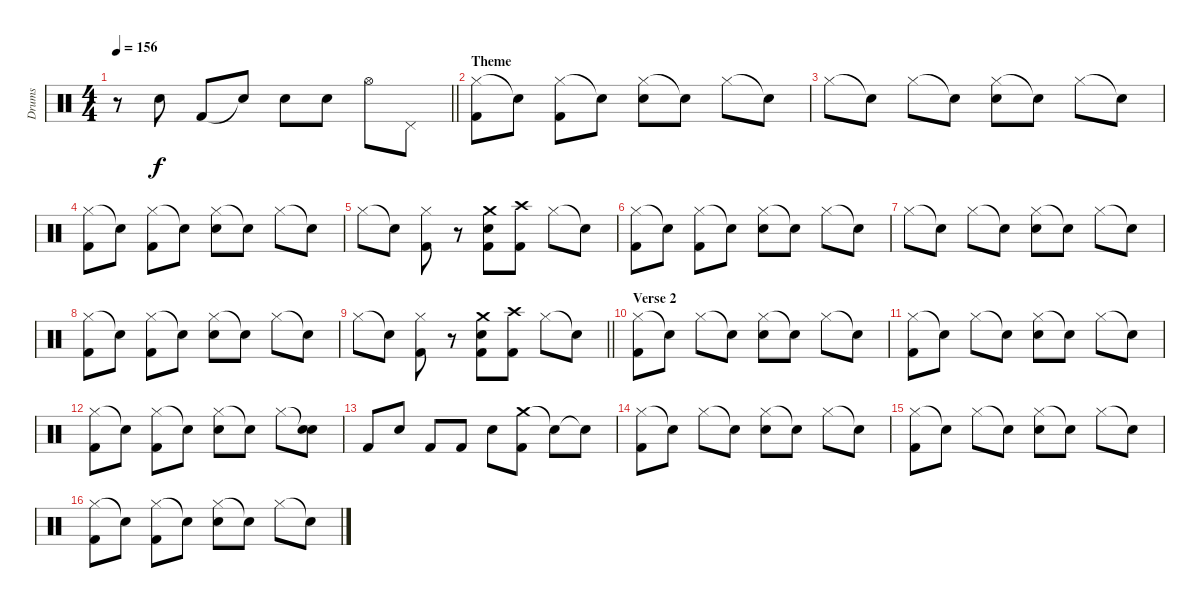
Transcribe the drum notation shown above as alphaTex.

\track ("Drums" "Drums") {instrument percussion}
\staff {score}
\articulation defaults
\ts (4 4)
\tempo 156
\clef neutral
\barLineRight lightlight
\ks c
r.8{dy f} "Snare (hit) 2".8 "Kick (hit) 2".8 "Snare (hit)"{t}.8 "Snare (hit) 2".8 "Snare (hit) 2".8 "Hi-Hat (open)".8 "Pedal Hi-Hat (hit)".8 |
\section ("" "Theme")
("Hi-Hat (closed)" "Kick (hit) 2").8 "Snare (hit)"{t}.8 ("Hi-Hat (closed)" "Kick (hit) 2").8 "Snare (hit)"{t}.8 ("Hi-Hat (closed)" "Snare (hit) 2").8 "Snare (hit)"{t}.8 "Hi-Hat (closed)".8 "Snare (hit)"{t}.8 |
"Hi-Hat (closed)".8 "Snare (hit)"{t}.8 "Hi-Hat (closed)".8 "Snare (hit)"{t}.8 ("Hi-Hat (closed)" "Snare (hit) 2").8 "Snare (hit)"{t}.8 "Hi-Hat (closed)".8 "Snare (hit)"{t}.8 |
("Hi-Hat (closed)" "Kick (hit) 2").8 "Snare (hit)"{t}.8 ("Hi-Hat (closed)" "Kick (hit) 2").8 "Snare (hit)"{t}.8 ("Hi-Hat (closed)" "Snare (hit) 2").8 "Snare (hit)"{t}.8 "Hi-Hat (closed)".8 "Snare (hit)"{t}.8 |
"Hi-Hat (closed)".8 "Snare (hit)"{t}.8 ("Hi-Hat (closed)" "Kick (hit) 2").8 r.8 ("Crash medium (hit)" "Snare (hit) 2" "Kick (hit) 2").8 ("Crash high (hit)" "Kick (hit) 2").8 "Hi-Hat (closed)".8 "Snare (hit)"{t}.8 |
("Hi-Hat (closed)" "Kick (hit) 2").8 "Snare (hit)"{t}.8 ("Hi-Hat (closed)" "Kick (hit) 2").8 "Snare (hit)"{t}.8 ("Hi-Hat (closed)" "Snare (hit) 2").8 "Snare (hit)"{t}.8 "Hi-Hat (closed)".8 "Snare (hit)"{t}.8 |
"Hi-Hat (closed)".8 "Snare (hit)"{t}.8 "Hi-Hat (closed)".8 "Snare (hit)"{t}.8 ("Hi-Hat (closed)" "Snare (hit) 2").8 "Snare (hit)"{t}.8 "Hi-Hat (closed)".8 "Snare (hit)"{t}.8 |
("Hi-Hat (closed)" "Kick (hit) 2").8 "Snare (hit)"{t}.8 ("Hi-Hat (closed)" "Kick (hit) 2").8 "Snare (hit)"{t}.8 ("Hi-Hat (closed)" "Snare (hit) 2").8 "Snare (hit)"{t}.8 "Hi-Hat (closed)".8 "Snare (hit)"{t}.8 |
\barLineRight lightlight "Hi-Hat (closed)".8 "Snare (hit)"{t}.8
("Hi-Hat (closed)" "Kick (hit) 2").8 r.8 ("Crash medium (hit)" "Snare (hit) 2" "Kick (hit) 2").8 ("Crash high (hit)" "Kick (hit) 2").8 "Hi-Hat (closed)".8 "Snare (hit)"{t}.8 |
\section ("" "Verse 2")
("Hi-Hat (closed)" "Kick (hit) 2").8 "Snare (hit)"{t}.8 "Hi-Hat (closed)".8 "Snare (hit)"{t}.8 ("Hi-Hat (closed)" "Snare (hit) 2").8 "Snare (hit)"{t}.8 "Hi-Hat (closed)".8 "Snare (hit)"{t}.8 |
("Hi-Hat (closed)" "Kick (hit) 2").8 "Snare (hit)"{t}.8 "Hi-Hat (closed)".8 "Snare (hit)"{t}.8 ("Hi-Hat (closed)" "Snare (hit) 2").8 "Snare (hit)"{t}.8 "Hi-Hat (closed)".8 "Snare (hit)"{t}.8 |
("Hi-Hat (closed)" "Kick (hit) 2").8 "Snare (hit)"{t}.8 ("Hi-Hat (closed)" "Kick (hit) 2").8 "Snare (hit)"{t}.8 ("Hi-Hat (closed)" "Snare (hit) 2").8 "Snare (hit)"{t}.8 "Hi-Hat (closed)".8 ("Snare (hit)"{t} "Snare (hit) 2").8 |
"Kick (hit) 2".8 "Snare (hit) 2".8 "Kick (hit) 2".8 "Kick (hit) 2".8 "Snare (hit) 2".8 ("Crash medium (hit)" "Kick (hit) 2").8 "Snare (hit)"{t}.8 "Snare (hit)"{t}.8 |
("Hi-Hat (closed)" "Kick (hit) 2").8 "Snare (hit)"{t}.8 "Hi-Hat (closed)".8 "Snare (hit)"{t}.8 ("Hi-Hat (closed)" "Snare (hit) 2").8 "Snare (hit)"{t}.8 "Hi-Hat (closed)".8 "Snare (hit)"{t}.8 |
("Hi-Hat (closed)" "Kick (hit) 2").8 "Snare (hit)"{t}.8 "Hi-Hat (closed)".8 "Snare (hit)"{t}.8 ("Hi-Hat (closed)" "Snare (hit) 2").8 "Snare (hit)"{t}.8 "Hi-Hat (closed)".8 "Snare (hit)"{t}.8 |
("Hi-Hat (closed)" "Kick (hit) 2").8 "Snare (hit)"{t}.8 ("Hi-Hat (closed)" "Kick (hit) 2").8 "Snare (hit)"{t}.8 ("Hi-Hat (closed)" "Snare (hit) 2").8 "Snare (hit)"{t}.8 "Hi-Hat (closed)".8 "Snare (hit)"{t}.8
